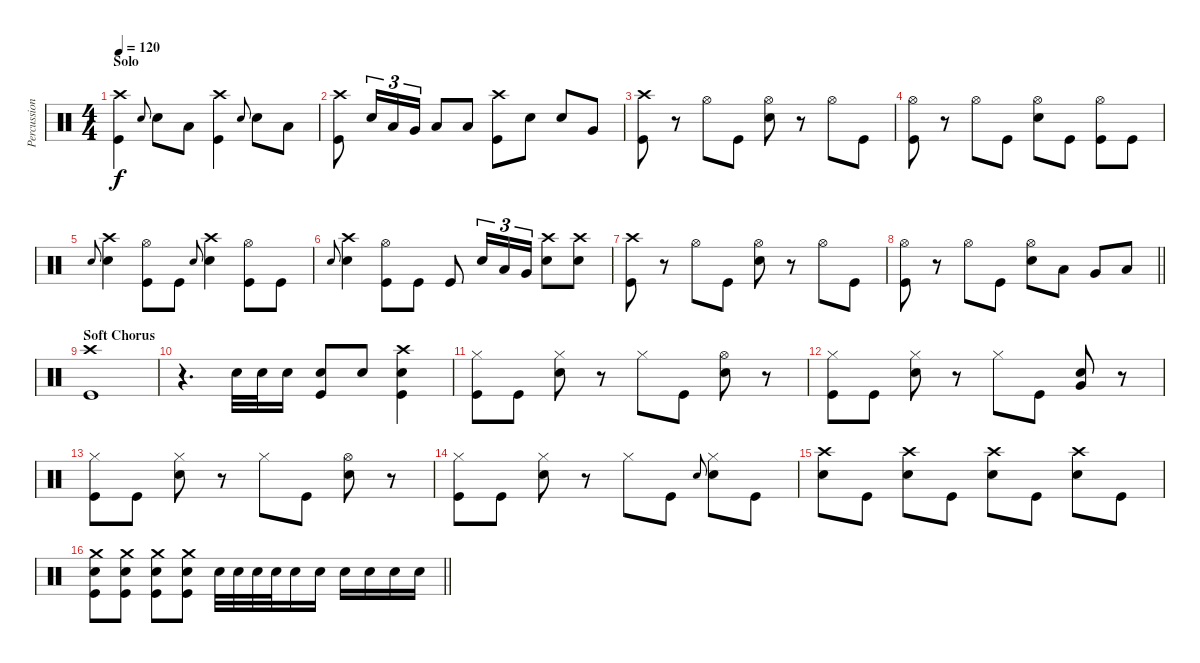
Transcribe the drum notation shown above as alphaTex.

\track ("Percussion" "Percussion") {instrument percussion}
\staff {score}
\articulation defaults
\ts (4 4)
\section ("" "Solo")
\tempo 120
\clef neutral
\ks c
("Crash high (hit)" "Kick (hit)").4{dy f} "Electric Snare (hit)".8{gr onbeat} "Electric Snare (hit)".8 "Low Tom (hit)".8 ("Crash high (hit)" "Kick (hit)").4 "Electric Snare (hit)".8{gr onbeat} "Electric Snare (hit)".8 "Low Tom (hit)".8 |
("Crash high (hit)" "Kick (hit)").8 "Electric Snare (hit)".16{tu (3 2)} "Low Tom (hit)".16{tu (3 2)} "Very Low Tom (hit)".16{tu (3 2)} "Low Floor Tom (hit)".8 "Low Floor Tom (hit)".8 ("Crash high (hit)" "Kick (hit)").8 "Electric Snare (hit)".8 "Electric Snare (hit)".8 "Very Low Tom (hit)".8 |
("Crash high (hit)" "Kick (hit)").8 r.8 "Hi-Hat (open)".8 "Kick (hit)".8 ("Hi-Hat (open)" "Electric Snare (hit)").8 r.8 "Hi-Hat (open)".8 "Kick (hit)".8 |
("Hi-Hat (open)" "Kick (hit)").8 r.8 "Hi-Hat (open)".8 "Kick (hit)".8 ("Hi-Hat (open)" "Electric Snare (hit)").8 "Kick (hit)".8 ("Hi-Hat (open)" "Kick (hit)").8 "Kick (hit)".8 |
"Electric Snare (hit)".8{gr onbeat} ("Crash high (hit)" "Electric Snare (hit)").4 ("Hi-Hat (open)" "Kick (hit)").8 "Kick (hit)".8 "Electric Snare (hit)".8{gr onbeat} ("Crash high (hit)" "Electric Snare (hit)").4 ("Hi-Hat (open)" "Kick (hit)").8 "Kick (hit)".8 |
"Electric Snare (hit)".8{gr onbeat} ("Crash high (hit)" "Electric Snare (hit)").4 ("Hi-Hat (open)" "Kick (hit)").8 "Kick (hit)".8 "Kick (hit)".8 "Electric Snare (hit)".16{tu (3 2)} "Low Tom (hit)".16{tu (3 2)} "Very Low Tom (hit)".16{tu (3 2)} ("Crash high (hit)" "Electric Snare (hit)").8 ("Crash high (hit)" "Electric Snare (hit)").8 |
("Crash high (hit)" "Kick (hit)").8 r.8 "Hi-Hat (open)".8 "Kick (hit)".8 ("Hi-Hat (open)" "Electric Snare (hit)").8 r.8 "Hi-Hat (open)".8 "Kick (hit)".8 |
\barLineRight lightlight
("Hi-Hat (open)" "Kick (hit)").8 r.8 "Hi-Hat (open)".8 "Kick (hit)".8 ("Hi-Hat (open)" "Electric Snare (hit)").8 "Low Tom (hit)".8 "Very Low Tom (hit)".8 "Low Floor Tom (hit)".8 |
\section ("" "Soft Chorus")
("Crash high (hit)" "Kick (hit)").1 |
r.4{d} "Electric Snare (hit)".32 "Electric Snare (hit)".32 "Electric Snare (hit)".16 ("Electric Snare (hit)" "Kick (hit)").8 "Electric Snare (hit)".8 ("Crash high (hit)" "Electric Snare (hit)" "Kick (hit)").4 |
("Hi-Hat (closed)" "Kick (hit)").8 "Kick (hit)".8 ("Hi-Hat (closed)" "Electric Snare (hit)").8 r.8 "Hi-Hat (closed)".8 "Kick (hit)".8 ("Hi-Hat (open)" "Electric Snare (hit)").8 r.8 |
("Hi-Hat (closed)" "Kick (hit)").8 "Kick (hit)".8 ("Hi-Hat (closed)" "Electric Snare (hit)").8 r.8 "Hi-Hat (closed)".8 "Kick (hit)".8 ("Very Low Tom (hit)" "Electric Snare (hit)").8 r.8 |
("Hi-Hat (closed)" "Kick (hit)").8 "Kick (hit)".8 ("Hi-Hat (closed)" "Electric Snare (hit)").8 r.8 "Hi-Hat (closed)".8 "Kick (hit)".8 ("Hi-Hat (open)" "Electric Snare (hit)").8 r.8 |
("Hi-Hat (closed)" "Kick (hit)").8 "Kick (hit)".8 ("Hi-Hat (closed)" "Electric Snare (hit)").8 r.8 "Hi-Hat (closed)".8 "Kick (hit)".8 "Electric Snare (hit)".8{gr onbeat} ("Hi-Hat (closed)" "Electric Snare (hit)").8 "Kick (hit)".8 |
("Crash high (hit)" "Electric Snare (hit)").8 "Kick (hit)".8 ("Crash high (hit)" "Electric Snare (hit)").8 "Kick (hit)".8 ("Crash high (hit)" "Electric Snare (hit)").8 "Kick (hit)".8 ("Crash high (hit)" "Electric Snare (hit)").8 "Kick (hit)".8 |
\barLineRight lightlight
("Crash medium (hit)" "Electric Snare (hit)" "Kick (hit)").8{volume 3} ("Crash medium (hit)" "Electric Snare (hit)" "Kick (hit)").8{volume 8} ("Crash medium (hit)" "Electric Snare (hit)" "Kick (hit)").8 ("Crash medium (hit)" "Electric Snare (hit)" "Kick (hit)").8 "Electric Snare (hit)".32 "Electric Snare (hit)".32 "Electric Snare (hit)".32 "Electric Snare (hit)".32 "Electric Snare (hit)".16 "Electric Snare (hit)".16 "Electric Snare (hit)".16 "Electric Snare (hit)".16 "Electric Snare (hit)".16 "Electric Snare (hit)".16
